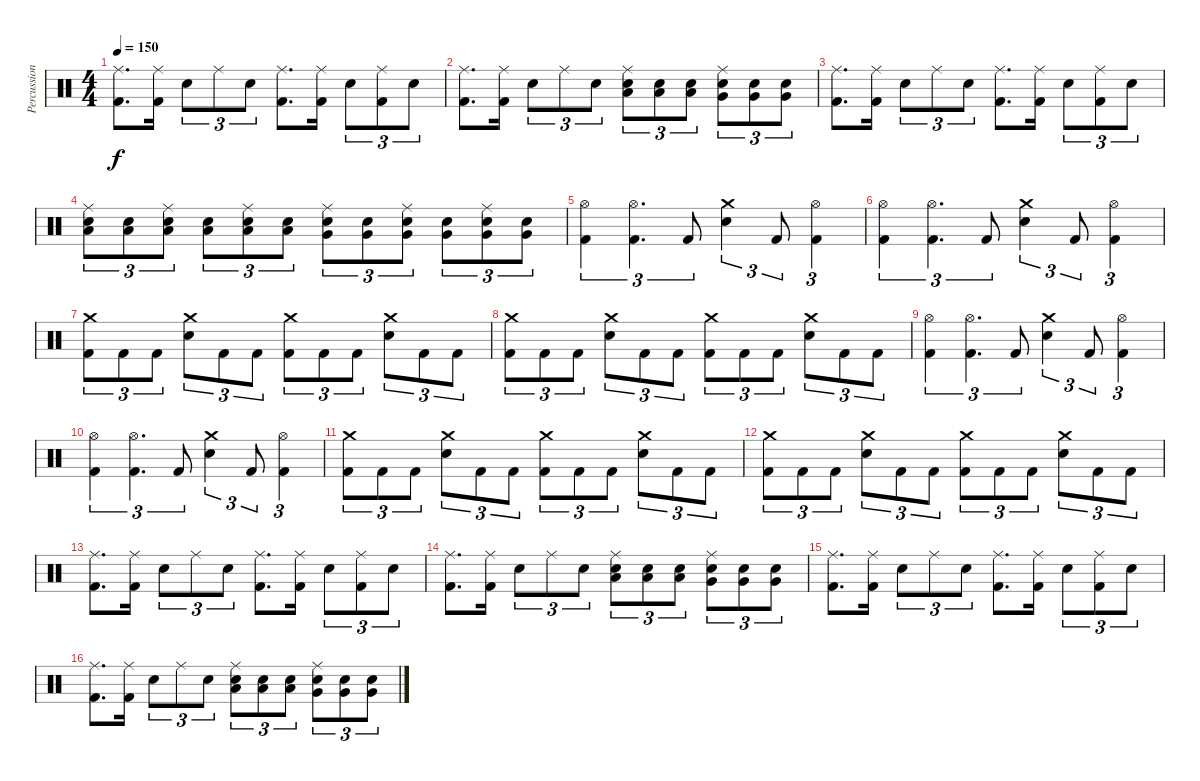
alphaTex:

\track ("Percussion" "Percussion") {instrument percussion}
\staff {score}
\articulation defaults
\ts (4 4)
\tempo 150
\clef neutral
\ks c
("Ride (middle)" "Kick (hit) 2").8{d dy f} ("Ride (middle)" "Kick (hit) 2").16 "Electric Snare (hit)".8{tu (3 2)} "Ride (middle)".8{tu (3 2)} "Electric Snare (hit)".8{tu (3 2)} ("Ride (middle)" "Kick (hit) 2").8{d} ("Ride (middle)" "Kick (hit) 2").16 "Electric Snare (hit)".8{tu (3 2)} ("Ride (middle)" "Kick (hit) 2").8{tu (3 2)} "Electric Snare (hit)".8{tu (3 2)} |
("Ride (middle)" "Kick (hit) 2").8{d} ("Ride (middle)" "Kick (hit) 2").16 "Electric Snare (hit)".8{tu (3 2)} "Ride (middle)".8{tu (3 2)} "Electric Snare (hit)".8{tu (3 2)} ("Ride (middle)" "Electric Snare (hit)" "Low Tom (hit)").8{tu (3 2)} ("Electric Snare (hit)" "Low Tom (hit)").8{tu (3 2)} ("Electric Snare (hit)" "Low Tom (hit)").8{tu (3 2)} ("Ride (middle)" "Electric Snare (hit)" "Very Low Tom (hit)").8{tu (3 2)} ("Electric Snare (hit)" "Very Low Tom (hit)").8{tu (3 2)} ("Electric Snare (hit)" "Very Low Tom (hit)").8{tu (3 2)} |
("Ride (middle)" "Kick (hit) 2").8{d} ("Ride (middle)" "Kick (hit) 2").16 "Electric Snare (hit)".8{tu (3 2)} "Ride (middle)".8{tu (3 2)} "Electric Snare (hit)".8{tu (3 2)} ("Ride (middle)" "Kick (hit) 2").8{d} ("Ride (middle)" "Kick (hit) 2").16 "Electric Snare (hit)".8{tu (3 2)} ("Ride (middle)" "Kick (hit) 2").8{tu (3 2)} "Electric Snare (hit)".8{tu (3 2)} |
("Ride (middle)" "Electric Snare (hit)" "Low Tom (hit)").8{tu (3 2)} ("Electric Snare (hit)" "Low Tom (hit)").8{tu (3 2)} ("Ride (middle)" "Electric Snare (hit)" "Low Tom (hit)").8{tu (3 2)} ("Electric Snare (hit)" "Low Tom (hit)").8{tu (3 2)} ("Ride (middle)" "Electric Snare (hit)" "Low Tom (hit)").8{tu (3 2)} ("Electric Snare (hit)" "Low Tom (hit)").8{tu (3 2)} ("Ride (middle)" "Electric Snare (hit)" "Very Low Tom (hit)").8{tu (3 2)} ("Electric Snare (hit)" "Very Low Tom (hit)").8{tu (3 2)} ("Ride (middle)" "Electric Snare (hit)" "Very Low Tom (hit)").8{tu (3 2)} ("Electric Snare (hit)" "Very Low Tom (hit)").8{tu (3 2)} ("Ride (middle)" "Electric Snare (hit)" "Very Low Tom (hit)").8{tu (3 2)} ("Electric Snare (hit)" "Very Low Tom (hit)").8{tu (3 2)} |
("Hi-Hat (open)" "Kick (hit) 2").4{tu (3 2)} ("Hi-Hat (open)" "Kick (hit) 2").4{d tu (3 2)} "Kick (hit) 2".8{tu (3 2)} ("Crash medium (hit)" "Electric Snare (hit)").4{tu (3 2)} "Kick (hit) 2".8{tu (3 2)} ("Hi-Hat (open)" "Kick (hit) 2").4{tu (3 2)} |
("Hi-Hat (open)" "Kick (hit) 2").4{tu (3 2)} ("Hi-Hat (open)" "Kick (hit) 2").4{d tu (3 2)} "Kick (hit) 2".8{tu (3 2)} ("Crash medium (hit)" "Electric Snare (hit)").4{tu (3 2)} "Kick (hit) 2".8{tu (3 2)} ("Hi-Hat (open)" "Kick (hit) 2").4{tu (3 2)} |
("Crash medium (hit)" "Kick (hit) 2").8{tu (3 2)} "Kick (hit) 2".8{tu (3 2)} "Kick (hit) 2".8{tu (3 2)} ("Crash medium (hit)" "Electric Snare (hit)").8{tu (3 2)} "Kick (hit) 2".8{tu (3 2)} "Kick (hit) 2".8{tu (3 2)} ("Crash medium (hit)" "Kick (hit) 2").8{tu (3 2)} "Kick (hit) 2".8{tu (3 2)} "Kick (hit) 2".8{tu (3 2)} ("Crash medium (hit)" "Electric Snare (hit)").8{tu (3 2)} "Kick (hit) 2".8{tu (3 2)} "Kick (hit) 2".8{tu (3 2)} |
("Crash medium (hit)" "Kick (hit) 2").8{tu (3 2)} "Kick (hit) 2".8{tu (3 2)} "Kick (hit) 2".8{tu (3 2)} ("Crash medium (hit)" "Electric Snare (hit)").8{tu (3 2)} "Kick (hit) 2".8{tu (3 2)} "Kick (hit) 2".8{tu (3 2)} ("Crash medium (hit)" "Kick (hit) 2").8{tu (3 2)} "Kick (hit) 2".8{tu (3 2)} "Kick (hit) 2".8{tu (3 2)} ("Crash medium (hit)" "Electric Snare (hit)").8{tu (3 2)} "Kick (hit) 2".8{tu (3 2)} "Kick (hit) 2".8{tu (3 2)} |
("Hi-Hat (open)" "Kick (hit) 2").4{tu (3 2)} ("Hi-Hat (open)" "Kick (hit) 2").4{d tu (3 2)} "Kick (hit) 2".8{tu (3 2)} ("Crash medium (hit)" "Electric Snare (hit)").4{tu (3 2)} "Kick (hit) 2".8{tu (3 2)} ("Hi-Hat (open)" "Kick (hit) 2").4{tu (3 2)} |
("Hi-Hat (open)" "Kick (hit) 2").4{tu (3 2)} ("Hi-Hat (open)" "Kick (hit) 2").4{d tu (3 2)} "Kick (hit) 2".8{tu (3 2)} ("Crash medium (hit)" "Electric Snare (hit)").4{tu (3 2)} "Kick (hit) 2".8{tu (3 2)} ("Hi-Hat (open)" "Kick (hit) 2").4{tu (3 2)} |
("Crash medium (hit)" "Kick (hit) 2").8{tu (3 2)} "Kick (hit) 2".8{tu (3 2)} "Kick (hit) 2".8{tu (3 2)} ("Crash medium (hit)" "Electric Snare (hit)").8{tu (3 2)} "Kick (hit) 2".8{tu (3 2)} "Kick (hit) 2".8{tu (3 2)} ("Crash medium (hit)" "Kick (hit) 2").8{tu (3 2)} "Kick (hit) 2".8{tu (3 2)} "Kick (hit) 2".8{tu (3 2)} ("Crash medium (hit)" "Electric Snare (hit)").8{tu (3 2)} "Kick (hit) 2".8{tu (3 2)} "Kick (hit) 2".8{tu (3 2)} |
("Crash medium (hit)" "Kick (hit) 2").8{tu (3 2)} "Kick (hit) 2".8{tu (3 2)} "Kick (hit) 2".8{tu (3 2)} ("Crash medium (hit)" "Electric Snare (hit)").8{tu (3 2)} "Kick (hit) 2".8{tu (3 2)} "Kick (hit) 2".8{tu (3 2)} ("Crash medium (hit)" "Kick (hit) 2").8{tu (3 2)} "Kick (hit) 2".8{tu (3 2)} "Kick (hit) 2".8{tu (3 2)} ("Crash medium (hit)" "Electric Snare (hit)").8{tu (3 2)} "Kick (hit) 2".8{tu (3 2)} "Kick (hit) 2".8{tu (3 2)} |
("Ride (middle)" "Kick (hit) 2").8{d} ("Ride (middle)" "Kick (hit) 2").16 "Electric Snare (hit)".8{tu (3 2)} "Ride (middle)".8{tu (3 2)} "Electric Snare (hit)".8{tu (3 2)} ("Ride (middle)" "Kick (hit) 2").8{d} ("Ride (middle)" "Kick (hit) 2").16 "Electric Snare (hit)".8{tu (3 2)} ("Ride (middle)" "Kick (hit) 2").8{tu (3 2)} "Electric Snare (hit)".8{tu (3 2)} |
("Ride (middle)" "Kick (hit) 2").8{d} ("Ride (middle)" "Kick (hit) 2").16 "Electric Snare (hit)".8{tu (3 2)} "Ride (middle)".8{tu (3 2)} "Electric Snare (hit)".8{tu (3 2)} ("Ride (middle)" "Electric Snare (hit)" "Low Tom (hit)").8{tu (3 2)} ("Electric Snare (hit)" "Low Tom (hit)").8{tu (3 2)} ("Electric Snare (hit)" "Low Tom (hit)").8{tu (3 2)} ("Ride (middle)" "Electric Snare (hit)" "Very Low Tom (hit)").8{tu (3 2)} ("Electric Snare (hit)" "Very Low Tom (hit)").8{tu (3 2)} ("Electric Snare (hit)" "Very Low Tom (hit)").8{tu (3 2)} |
("Ride (middle)" "Kick (hit) 2").8{d} ("Ride (middle)" "Kick (hit) 2").16 "Electric Snare (hit)".8{tu (3 2)} "Ride (middle)".8{tu (3 2)} "Electric Snare (hit)".8{tu (3 2)} ("Ride (middle)" "Kick (hit) 2").8{d} ("Ride (middle)" "Kick (hit) 2").16 "Electric Snare (hit)".8{tu (3 2)} ("Ride (middle)" "Kick (hit) 2").8{tu (3 2)} "Electric Snare (hit)".8{tu (3 2)} |
("Ride (middle)" "Kick (hit) 2").8{d} ("Ride (middle)" "Kick (hit) 2").16 "Electric Snare (hit)".8{tu (3 2)} "Ride (middle)".8{tu (3 2)} "Electric Snare (hit)".8{tu (3 2)} ("Ride (middle)" "Electric Snare (hit)" "Low Tom (hit)").8{tu (3 2)} ("Electric Snare (hit)" "Low Tom (hit)").8{tu (3 2)} ("Electric Snare (hit)" "Low Tom (hit)").8{tu (3 2)} ("Ride (middle)" "Electric Snare (hit)" "Very Low Tom (hit)").8{tu (3 2)} ("Electric Snare (hit)" "Very Low Tom (hit)").8{tu (3 2)} ("Electric Snare (hit)" "Very Low Tom (hit)").8{tu (3 2)}
